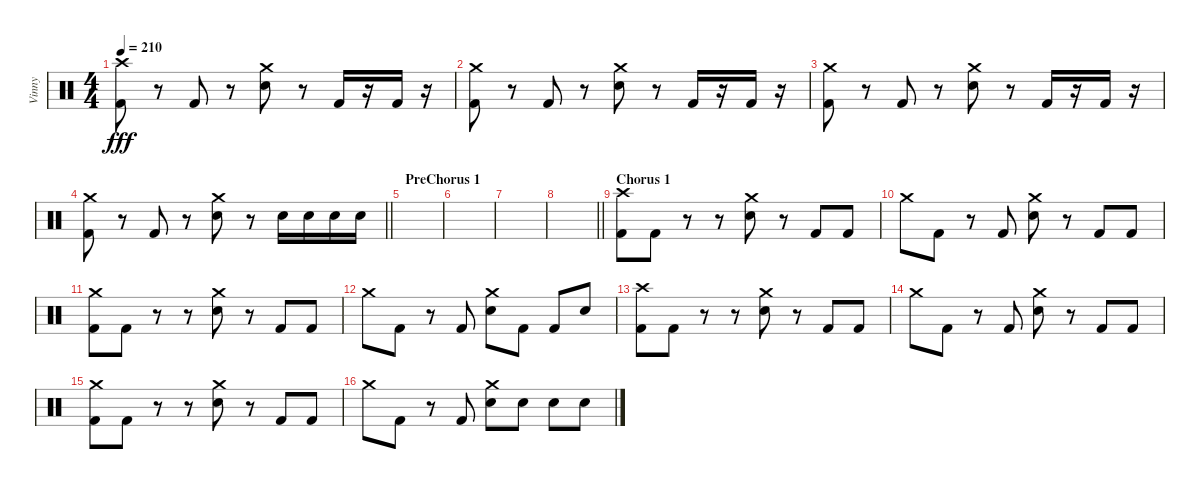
\track ("Vinny" "Vinny") {instrument percussion}
\staff {score}
\articulation defaults
\ts (4 4)
\tempo 210
\clef neutral
\ks c
("Crash high (hit)" "Kick (hit) 2").8{dy fff} r.8 "Kick (hit) 2".8 r.8 ("Crash medium (hit)" "Electric Snare (hit)").8 r.8 "Kick (hit) 2".16 r.16 "Kick (hit) 2".16 r.16 |
("Crash medium (hit)" "Kick (hit) 2").8 r.8 "Kick (hit) 2".8 r.8 ("Crash medium (hit)" "Electric Snare (hit)").8 r.8 "Kick (hit) 2".16 r.16 "Kick (hit) 2".16 r.16 |
("Crash medium (hit)" "Kick (hit) 2").8 r.8 "Kick (hit) 2".8 r.8 ("Crash medium (hit)" "Electric Snare (hit)").8 r.8 "Kick (hit) 2".16 r.16 "Kick (hit) 2".16 r.16 |
\barLineRight lightlight
("Crash medium (hit)" "Kick (hit) 2").8 r.8 "Kick (hit) 2".8 r.8 ("Crash medium (hit)" "Electric Snare (hit)").8 r.8 "Electric Snare (hit)".16 "Electric Snare (hit)".16 "Electric Snare (hit)".16 "Electric Snare (hit)".16 |
\section ("" "PreChorus 1")
|
|
|
\barLineRight lightlight
|
\section ("" "Chorus 1")
("Crash high (hit)" "Kick (hit) 2").8 "Kick (hit) 2".8 r.8 r.8 ("Crash medium (hit)" "Electric Snare (hit)").8 r.8 "Kick (hit) 2".8 "Kick (hit) 2".8 |
"Crash medium (hit)".8 "Kick (hit) 2".8 r.8 "Kick (hit) 2".8 ("Crash medium (hit)" "Electric Snare (hit)").8 r.8 "Kick (hit) 2".8 "Kick (hit) 2".8 |
("Crash medium (hit)" "Kick (hit) 2").8 "Kick (hit) 2".8 r.8 r.8 ("Crash medium (hit)" "Electric Snare (hit)").8 r.8 "Kick (hit) 2".8 "Kick (hit) 2".8 |
"Crash medium (hit)".8 "Kick (hit) 2".8 r.8 "Kick (hit) 2".8 ("Crash medium (hit)" "Electric Snare (hit)").8 "Kick (hit) 2".8 "Kick (hit) 2".8 "Electric Snare (hit)".8 |
("Crash high (hit)" "Kick (hit) 2").8 "Kick (hit) 2".8 r.8 r.8 ("Crash medium (hit)" "Electric Snare (hit)").8 r.8 "Kick (hit) 2".8 "Kick (hit) 2".8 |
"Crash medium (hit)".8 "Kick (hit) 2".8 r.8 "Kick (hit) 2".8 ("Crash medium (hit)" "Electric Snare (hit)").8 r.8 "Kick (hit) 2".8 "Kick (hit) 2".8 |
("Crash medium (hit)" "Kick (hit) 2").8 "Kick (hit) 2".8 r.8 r.8 ("Crash medium (hit)" "Electric Snare (hit)").8 r.8 "Kick (hit) 2".8 "Kick (hit) 2".8 |
"Crash medium (hit)".8 "Kick (hit) 2".8 r.8 "Kick (hit) 2".8 ("Crash medium (hit)" "Electric Snare (hit)").8 "Electric Snare (hit)".8 "Electric Snare (hit)".8 "Electric Snare (hit)".8
